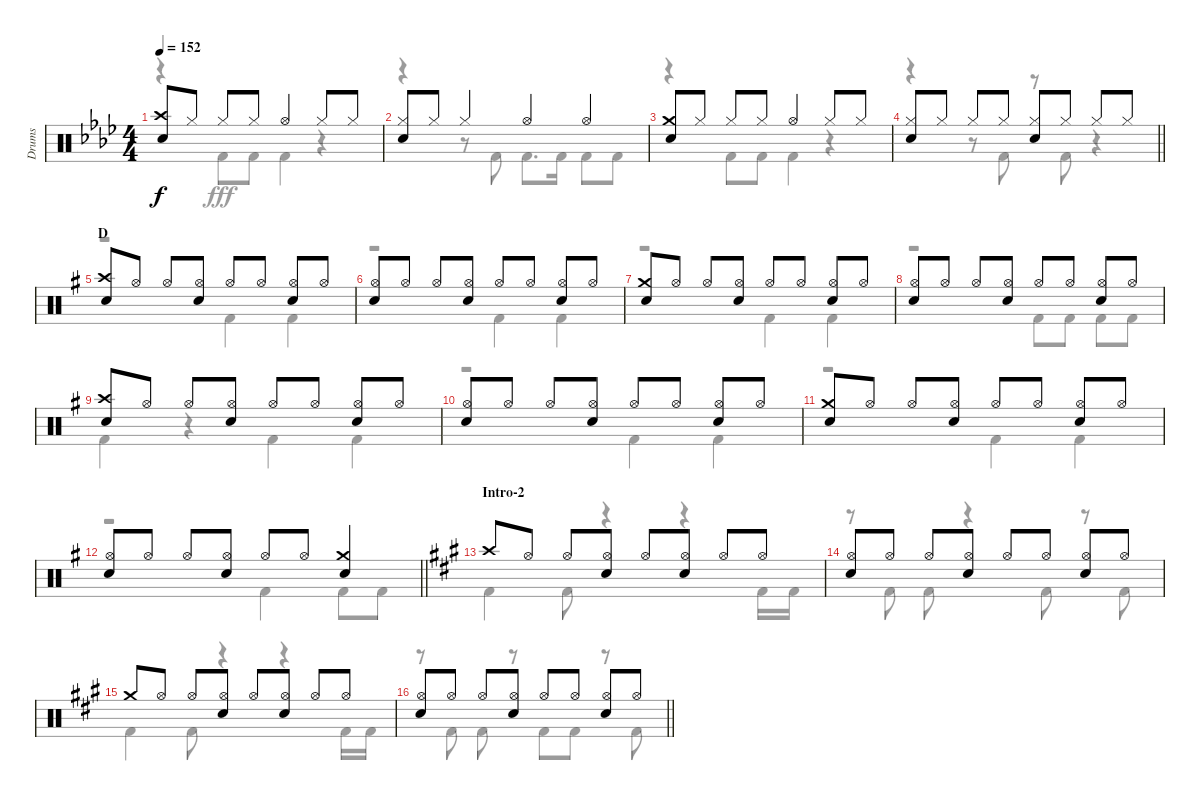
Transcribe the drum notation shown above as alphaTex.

\track ("Drums" "Drums") {instrument percussion}
\staff {score}
\articulation defaults
\voice
\ts (4 4)
\tempo 152
\clef neutral
\ks ab
("Crash high (hit)" "Snare (hit) 2").8{dy f} "Hi-Hat (closed)".8 "Hi-Hat (closed)".8 "Hi-Hat (closed)".8 "Hi-Hat (open)".4 "Hi-Hat (closed)".8 "Hi-Hat (closed)".8 |
("Hi-Hat (closed)" "Snare (hit) 2").8 "Hi-Hat (closed)".8 "Hi-Hat (closed)".4 "Hi-Hat (open)".4 "Hi-Hat (open)".4 |
("Crash medium (hit)" "Snare (hit) 2").8 "Hi-Hat (closed)".8 "Hi-Hat (closed)".8 "Hi-Hat (closed)".8 "Hi-Hat (open)".4 "Hi-Hat (closed)".8 "Hi-Hat (closed)".8 |
\barLineRight lightlight
("Hi-Hat (closed)" "Snare (hit) 2").8 "Hi-Hat (closed)".8 "Hi-Hat (closed)".8 "Hi-Hat (closed)".8 ("Hi-Hat (closed)" "Snare (hit) 2").8 "Hi-Hat (closed)".8 "Hi-Hat (closed)".8 "Hi-Hat (closed)".8 |
\section ("" "D")
\ks g
("Crash high (hit)" "Snare (hit) 2").8 "Hi-Hat (open)".8 "Hi-Hat (open)".8 ("Hi-Hat (open)" "Snare (hit) 2").8 "Hi-Hat (open)".8 "Hi-Hat (open)".8 ("Hi-Hat (open)" "Snare (hit) 2").8 "Hi-Hat (open)".8 |
("Hi-Hat (open)" "Snare (hit) 2").8 "Hi-Hat (open)".8 "Hi-Hat (open)".8 ("Hi-Hat (open)" "Snare (hit) 2").8 "Hi-Hat (open)".8 "Hi-Hat (open)".8 ("Hi-Hat (open)" "Snare (hit) 2").8 "Hi-Hat (open)".8 |
("Crash medium (hit)" "Snare (hit) 2").8 "Hi-Hat (open)".8 "Hi-Hat (open)".8 ("Hi-Hat (open)" "Snare (hit) 2").8 "Hi-Hat (open)".8 "Hi-Hat (open)".8 ("Hi-Hat (open)" "Snare (hit) 2").8 "Hi-Hat (open)".8 |
("Hi-Hat (open)" "Snare (hit) 2").8 "Hi-Hat (open)".8 "Hi-Hat (open)".8 ("Hi-Hat (open)" "Snare (hit) 2").8 "Hi-Hat (open)".8 "Hi-Hat (open)".8 ("Hi-Hat (open)" "Snare (hit) 2").8 "Hi-Hat (open)".8 |
("Crash high (hit)" "Snare (hit) 2").8 "Hi-Hat (open)".8 "Hi-Hat (open)".8 ("Hi-Hat (open)" "Snare (hit) 2").8 "Hi-Hat (open)".8 "Hi-Hat (open)".8 ("Hi-Hat (open)" "Snare (hit) 2").8 "Hi-Hat (open)".8 |
("Hi-Hat (open)" "Snare (hit) 2").8 "Hi-Hat (open)".8 "Hi-Hat (open)".8 ("Hi-Hat (open)" "Snare (hit) 2").8 "Hi-Hat (open)".8 "Hi-Hat (open)".8 ("Hi-Hat (open)" "Snare (hit) 2").8 "Hi-Hat (open)".8 |
("Crash medium (hit)" "Snare (hit) 2").8 "Hi-Hat (open)".8 "Hi-Hat (open)".8 ("Hi-Hat (open)" "Snare (hit) 2").8 "Hi-Hat (open)".8 "Hi-Hat (open)".8 ("Hi-Hat (open)" "Snare (hit) 2").8 "Hi-Hat (open)".8 |
\barLineRight lightlight
("Hi-Hat (open)" "Snare (hit) 2").8 "Hi-Hat (open)".8 "Hi-Hat (open)".8 ("Hi-Hat (open)" "Snare (hit) 2").8 "Hi-Hat (open)".8 "Hi-Hat (open)".8 ("Crash medium (hit)" "Snare (hit) 2").4 |
\section ("" "Intro-2")
\ks a "Crash high (hit)".8 "Hi-Hat (open)".8 "Hi-Hat (open)".8
("Hi-Hat (open)" "Snare (hit) 2").8 "Hi-Hat (open)".8 ("Hi-Hat (open)" "Snare (hit) 2").8 "Hi-Hat (open)".8 "Hi-Hat (open)".8 |
("Hi-Hat (open)" "Snare (hit) 2").8 "Hi-Hat (open)".8 "Hi-Hat (open)".8 ("Hi-Hat (open)" "Snare (hit) 2").8 "Hi-Hat (open)".8 "Hi-Hat (open)".8 ("Hi-Hat (open)" "Snare (hit) 2").8 "Hi-Hat (open)".8 |
"Crash medium (hit)".8 "Hi-Hat (open)".8 "Hi-Hat (open)".8 ("Hi-Hat (open)" "Snare (hit) 2").8 "Hi-Hat (open)".8 ("Hi-Hat (open)" "Snare (hit) 2").8 "Hi-Hat (open)".8 "Hi-Hat (open)".8 |
\barLineRight lightlight
("Hi-Hat (open)" "Snare (hit) 2").8 "Hi-Hat (open)".8 "Hi-Hat (open)".8 ("Hi-Hat (open)" "Snare (hit) 2").8 "Hi-Hat (open)".8 "Hi-Hat (open)".8 ("Hi-Hat (open)" "Snare (hit) 2").8 "Hi-Hat (open)".8
\voice
\clef neutral
\ottava regular
\simile none
\ks ab
r.4{dy fff} "Kick (hit) 2".8 "Kick (hit) 2".8 "Kick (hit) 2".4 r.4 |
r.4 r.8 "Kick (hit) 2".8 "Kick (hit) 2".8{d} "Kick (hit) 2".16 "Kick (hit) 2".8 "Kick (hit) 2".8 |
r.4 "Kick (hit) 2".8 "Kick (hit) 2".8 "Kick (hit) 2".4 r.4 |
\barLineRight lightlight
r.4 r.8 "Kick (hit) 2".8 r.8 "Kick (hit) 2".8 r.4 |
\ks g
r.2 "Kick (hit) 2".4 "Kick (hit) 2".4 |
r.2 "Kick (hit) 2".4 "Kick (hit) 2".4 |
r.2 "Kick (hit) 2".4 "Kick (hit) 2".4 |
r.2 "Kick (hit) 2".8 "Kick (hit) 2".8 "Kick (hit) 2".8 "Kick (hit) 2".8 |
"Kick (hit) 2".4 r.4 "Kick (hit) 2".4 "Kick (hit) 2".4 |
r.2 "Kick (hit) 2".4 "Kick (hit) 2".4 |
r.2 "Kick (hit) 2".4 "Kick (hit) 2".4 |
\barLineRight lightlight
r.2 "Kick (hit) 2".4 "Kick (hit) 2".8 "Kick (hit) 2".8 |
\ks a "Kick (hit) 2".4 "Kick (hit) 2".8
r.4 r.4 "Kick (hit) 2".16 "Kick (hit) 2".16 |
r.8 "Kick (hit) 2".8 "Kick (hit) 2".8 r.4 "Kick (hit) 2".8 r.8 "Kick (hit) 2".8 |
"Kick (hit) 2".4 "Kick (hit) 2".8 r.4 r.4 "Kick (hit) 2".16 "Kick (hit) 2".16 |
\barLineRight lightlight
r.8 "Kick (hit) 2".8 "Kick (hit) 2".8 r.8 "Kick (hit) 2".8 "Kick (hit) 2".8 r.8 "Kick (hit) 2".8
